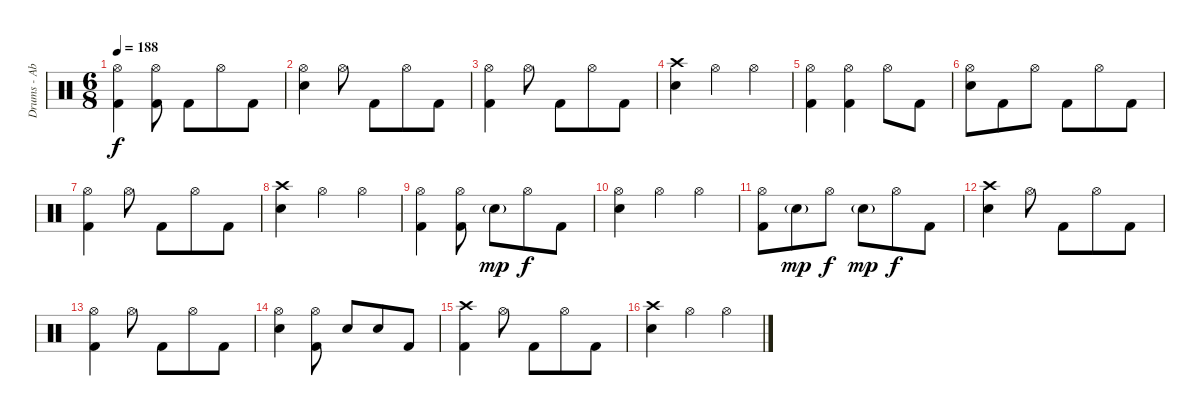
\track ("Drums - Abe Cunningham" "Drums - Ab") {instrument percussion}
\staff {score}
\articulation defaults
\ts (6 8)
\tempo 188
\clef neutral
\ks c
("Hi-Hat (open)" "Kick (hit) 2").4{dy f} ("Hi-Hat (open)" "Kick (hit) 2").8 "Kick (hit) 2".8 "Hi-Hat (open)".8 "Kick (hit) 2".8 |
("Hi-Hat (open)" "Electric Snare (hit)").4 "Hi-Hat (open)".8 "Kick (hit) 2".8 "Hi-Hat (open)".8 "Kick (hit) 2".8 |
("Hi-Hat (open)" "Kick (hit) 2").4 "Hi-Hat (open)".8 "Kick (hit) 2".8 "Hi-Hat (open)".8 "Kick (hit) 2".8 |
("Crash high (hit)" "Electric Snare (hit)").4 "Hi-Hat (open)".4 "Hi-Hat (open)".4 |
("Hi-Hat (open)" "Kick (hit) 2").4 ("Hi-Hat (open)" "Kick (hit) 2").4 "Hi-Hat (open)".8 "Kick (hit) 2".8 |
("Hi-Hat (open)" "Electric Snare (hit)").8 "Kick (hit) 2".8 "Hi-Hat (open)".8 "Kick (hit) 2".8 "Hi-Hat (open)".8 "Kick (hit) 2".8 |
("Hi-Hat (open)" "Kick (hit) 2").4 "Hi-Hat (open)".8 "Kick (hit) 2".8 "Hi-Hat (open)".8 "Kick (hit) 2".8 |
("Crash high (hit)" "Electric Snare (hit)").4 "Hi-Hat (open)".4 "Hi-Hat (open)".4 |
("Hi-Hat (open)" "Kick (hit) 2").4 ("Hi-Hat (open)" "Kick (hit) 2").8 "Electric Snare (hit)"{g}.8{dy mp} "Hi-Hat (open)".8{dy f} "Kick (hit) 2".8 |
("Hi-Hat (open)" "Electric Snare (hit)").4 "Hi-Hat (open)".4 "Hi-Hat (open)".4 |
("Hi-Hat (open)" "Kick (hit) 2").8 "Electric Snare (hit)"{g}.8{dy mp} "Hi-Hat (open)".8{dy f} "Electric Snare (hit)"{g}.8{dy mp} "Hi-Hat (open)".8{dy f} "Kick (hit) 2".8 |
("Crash high (hit)" "Electric Snare (hit)").4 "Hi-Hat (open)".8 "Kick (hit) 2".8 "Hi-Hat (open)".8 "Kick (hit) 2".8 |
("Hi-Hat (open)" "Kick (hit) 2").4 "Hi-Hat (open)".8 "Kick (hit) 2".8 "Hi-Hat (open)".8 "Kick (hit) 2".8 |
("Hi-Hat (open)" "Electric Snare (hit)").4 ("Hi-Hat (open)" "Kick (hit) 2").8 "Electric Snare (hit)".8 "Electric Snare (hit)".8 "Kick (hit) 2".8 |
("Crash high (hit)" "Kick (hit) 2").4 "Hi-Hat (open)".8 "Kick (hit) 2".8 "Hi-Hat (open)".8 "Kick (hit) 2".8 |
("Crash high (hit)" "Electric Snare (hit)").4 "Hi-Hat (open)".4 "Hi-Hat (open)".4
